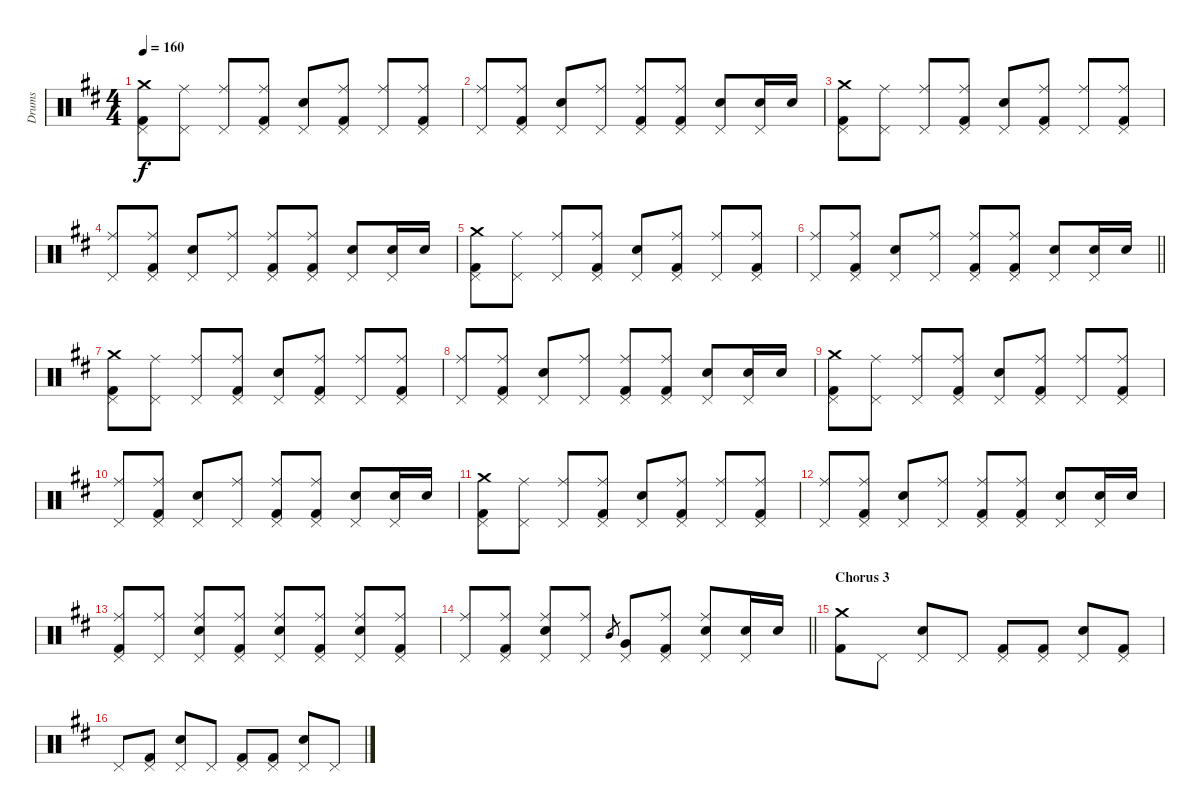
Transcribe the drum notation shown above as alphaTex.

\track ("Drums" "Drums") {instrument percussion}
\staff {score}
\articulation defaults
\ts (4 4)
\tempo 160
\clef neutral
\ks d
("Crash medium (hit)" "Pedal Hi-Hat (hit)" "Kick (hit) 2").8{dy f} ("Ride (middle)" "Pedal Hi-Hat (hit)").8 ("Ride (middle)" "Pedal Hi-Hat (hit)").8 ("Ride (middle)" "Pedal Hi-Hat (hit)" "Kick (hit) 2").8 ("Electric Snare (hit)" "Pedal Hi-Hat (hit)").8 ("Ride (middle)" "Pedal Hi-Hat (hit)" "Kick (hit) 2").8 ("Ride (middle)" "Pedal Hi-Hat (hit)").8 ("Ride (middle)" "Pedal Hi-Hat (hit)" "Kick (hit) 2").8 |
("Ride (middle)" "Pedal Hi-Hat (hit)").8 ("Ride (middle)" "Pedal Hi-Hat (hit)" "Kick (hit) 2").8 ("Electric Snare (hit)" "Pedal Hi-Hat (hit)").8 ("Ride (middle)" "Pedal Hi-Hat (hit)").8 ("Ride (middle)" "Pedal Hi-Hat (hit)" "Kick (hit) 2").8 ("Ride (middle)" "Pedal Hi-Hat (hit)" "Kick (hit) 2").8 ("Electric Snare (hit)" "Pedal Hi-Hat (hit)").8 ("Snare (hit) 2" "Pedal Hi-Hat (hit)").16 "Snare (hit) 2".16 |
("Crash medium (hit)" "Pedal Hi-Hat (hit)" "Kick (hit) 2").8 ("Ride (middle)" "Pedal Hi-Hat (hit)").8 ("Ride (middle)" "Pedal Hi-Hat (hit)").8 ("Ride (middle)" "Pedal Hi-Hat (hit)" "Kick (hit) 2").8 ("Electric Snare (hit)" "Pedal Hi-Hat (hit)").8 ("Ride (middle)" "Pedal Hi-Hat (hit)" "Kick (hit) 2").8 ("Ride (middle)" "Pedal Hi-Hat (hit)").8 ("Ride (middle)" "Pedal Hi-Hat (hit)" "Kick (hit) 2").8 |
("Ride (middle)" "Pedal Hi-Hat (hit)").8 ("Ride (middle)" "Pedal Hi-Hat (hit)" "Kick (hit) 2").8 ("Electric Snare (hit)" "Pedal Hi-Hat (hit)").8 ("Ride (middle)" "Pedal Hi-Hat (hit)").8 ("Ride (middle)" "Pedal Hi-Hat (hit)" "Kick (hit) 2").8 ("Ride (middle)" "Pedal Hi-Hat (hit)" "Kick (hit) 2").8 ("Electric Snare (hit)" "Pedal Hi-Hat (hit)").8 ("Snare (hit) 2" "Pedal Hi-Hat (hit)").16 "Snare (hit) 2".16 |
("Crash medium (hit)" "Pedal Hi-Hat (hit)" "Kick (hit) 2").8 ("Ride (middle)" "Pedal Hi-Hat (hit)").8 ("Ride (middle)" "Pedal Hi-Hat (hit)").8 ("Ride (middle)" "Pedal Hi-Hat (hit)" "Kick (hit) 2").8 ("Electric Snare (hit)" "Pedal Hi-Hat (hit)").8 ("Ride (middle)" "Pedal Hi-Hat (hit)" "Kick (hit) 2").8 ("Ride (middle)" "Pedal Hi-Hat (hit)").8 ("Ride (middle)" "Pedal Hi-Hat (hit)" "Kick (hit) 2").8 |
\barLineRight lightlight
("Ride (middle)" "Pedal Hi-Hat (hit)").8 ("Ride (middle)" "Pedal Hi-Hat (hit)" "Kick (hit) 2").8 ("Electric Snare (hit)" "Pedal Hi-Hat (hit)").8 ("Ride (middle)" "Pedal Hi-Hat (hit)").8 ("Ride (middle)" "Pedal Hi-Hat (hit)" "Kick (hit) 2").8 ("Ride (middle)" "Pedal Hi-Hat (hit)" "Kick (hit) 2").8 ("Electric Snare (hit)" "Pedal Hi-Hat (hit)").8 ("Snare (hit) 2" "Pedal Hi-Hat (hit)").16 "Snare (hit) 2".16 |
("Crash medium (hit)" "Pedal Hi-Hat (hit)" "Kick (hit) 2").8 ("Ride (middle)" "Pedal Hi-Hat (hit)").8 ("Ride (middle)" "Pedal Hi-Hat (hit)").8 ("Ride (middle)" "Pedal Hi-Hat (hit)" "Kick (hit) 2").8 ("Electric Snare (hit)" "Pedal Hi-Hat (hit)").8 ("Ride (middle)" "Pedal Hi-Hat (hit)" "Kick (hit) 2").8 ("Ride (middle)" "Pedal Hi-Hat (hit)").8 ("Ride (middle)" "Pedal Hi-Hat (hit)" "Kick (hit) 2").8 |
("Ride (middle)" "Pedal Hi-Hat (hit)").8 ("Ride (middle)" "Pedal Hi-Hat (hit)" "Kick (hit) 2").8 ("Electric Snare (hit)" "Pedal Hi-Hat (hit)").8 ("Ride (middle)" "Pedal Hi-Hat (hit)").8 ("Ride (middle)" "Pedal Hi-Hat (hit)" "Kick (hit) 2").8 ("Ride (middle)" "Pedal Hi-Hat (hit)" "Kick (hit) 2").8 ("Electric Snare (hit)" "Pedal Hi-Hat (hit)").8 ("Snare (hit) 2" "Pedal Hi-Hat (hit)").16 "Snare (hit) 2".16 |
("Crash medium (hit)" "Pedal Hi-Hat (hit)" "Kick (hit) 2").8 ("Ride (middle)" "Pedal Hi-Hat (hit)").8 ("Ride (middle)" "Pedal Hi-Hat (hit)").8 ("Ride (middle)" "Pedal Hi-Hat (hit)" "Kick (hit) 2").8 ("Electric Snare (hit)" "Pedal Hi-Hat (hit)").8 ("Ride (middle)" "Pedal Hi-Hat (hit)" "Kick (hit) 2").8 ("Ride (middle)" "Pedal Hi-Hat (hit)").8 ("Ride (middle)" "Pedal Hi-Hat (hit)" "Kick (hit) 2").8 |
("Ride (middle)" "Pedal Hi-Hat (hit)").8 ("Ride (middle)" "Pedal Hi-Hat (hit)" "Kick (hit) 2").8 ("Electric Snare (hit)" "Pedal Hi-Hat (hit)").8 ("Ride (middle)" "Pedal Hi-Hat (hit)").8 ("Ride (middle)" "Pedal Hi-Hat (hit)" "Kick (hit) 2").8 ("Ride (middle)" "Pedal Hi-Hat (hit)" "Kick (hit) 2").8 ("Snare (hit) 2" "Pedal Hi-Hat (hit)").8 ("Snare (hit) 2" "Pedal Hi-Hat (hit)").16 "Snare (hit) 2".16 |
("Crash medium (hit)" "Pedal Hi-Hat (hit)" "Kick (hit) 2").8 ("Ride (middle)" "Pedal Hi-Hat (hit)").8 ("Ride (middle)" "Pedal Hi-Hat (hit)").8 ("Ride (middle)" "Pedal Hi-Hat (hit)" "Kick (hit) 2").8 ("Electric Snare (hit)" "Pedal Hi-Hat (hit)").8 ("Ride (middle)" "Pedal Hi-Hat (hit)" "Kick (hit) 2").8 ("Ride (middle)" "Pedal Hi-Hat (hit)").8 ("Ride (middle)" "Pedal Hi-Hat (hit)" "Kick (hit) 2").8 |
("Ride (middle)" "Pedal Hi-Hat (hit)").8 ("Ride (middle)" "Pedal Hi-Hat (hit)" "Kick (hit) 2").8 ("Electric Snare (hit)" "Pedal Hi-Hat (hit)").8 ("Ride (middle)" "Pedal Hi-Hat (hit)").8 ("Ride (middle)" "Pedal Hi-Hat (hit)" "Kick (hit) 2").8 ("Ride (middle)" "Pedal Hi-Hat (hit)" "Kick (hit) 2").8 ("Electric Snare (hit)" "Pedal Hi-Hat (hit)").8 ("Snare (hit) 2" "Pedal Hi-Hat (hit)").16 "Snare (hit) 2".16 |
("Ride (middle)" "Pedal Hi-Hat (hit)" "Kick (hit) 2").8 ("Ride (middle)" "Pedal Hi-Hat (hit)").8 ("Ride (middle)" "Pedal Hi-Hat (hit)" "Electric Snare (hit)").8 ("Ride (middle)" "Pedal Hi-Hat (hit)" "Kick (hit) 2").8 ("Ride (middle)" "Pedal Hi-Hat (hit)" "Electric Snare (hit)").8 ("Ride (middle)" "Pedal Hi-Hat (hit)" "Kick (hit) 2").8 ("Ride (middle)" "Pedal Hi-Hat (hit)" "Electric Snare (hit)").8 ("Ride (middle)" "Pedal Hi-Hat (hit)" "Kick (hit) 2").8 |
\barLineRight lightlight
("Ride (middle)" "Pedal Hi-Hat (hit)").8 ("Ride (middle)" "Pedal Hi-Hat (hit)" "Kick (hit) 2").8 ("Ride (middle)" "Pedal Hi-Hat (hit)" "Electric Snare (hit)").8 ("Ride (middle)" "Pedal Hi-Hat (hit)").8 "Mid Tom (hit)".8{gr} ("Pedal Hi-Hat (hit)" "Very Low Tom (hit)").8 ("Ride (middle)" "Pedal Hi-Hat (hit)" "Kick (hit) 2").8 ("Ride (middle)" "Electric Snare (hit)" "Pedal Hi-Hat (hit)").8 ("Electric Snare (hit)" "Pedal Hi-Hat (hit)").16 "Electric Snare (hit)".16 |
\section ("" "Chorus 3")
("Crash medium (hit)" "Kick (hit) 2").8 "Pedal Hi-Hat (hit)".8 ("Pedal Hi-Hat (hit)" "Electric Snare (hit)").8 "Pedal Hi-Hat (hit)".8 ("Pedal Hi-Hat (hit)" "Kick (hit) 2").8 ("Pedal Hi-Hat (hit)" "Kick (hit) 2").8 ("Pedal Hi-Hat (hit)" "Electric Snare (hit)").8 ("Pedal Hi-Hat (hit)" "Kick (hit) 2").8 |
"Pedal Hi-Hat (hit)".8 ("Pedal Hi-Hat (hit)" "Kick (hit) 2").8 ("Pedal Hi-Hat (hit)" "Electric Snare (hit)").8 "Pedal Hi-Hat (hit)".8 ("Pedal Hi-Hat (hit)" "Kick (hit) 2").8 ("Pedal Hi-Hat (hit)" "Kick (hit) 2").8 ("Pedal Hi-Hat (hit)" "Electric Snare (hit)").8 "Pedal Hi-Hat (hit)".8
